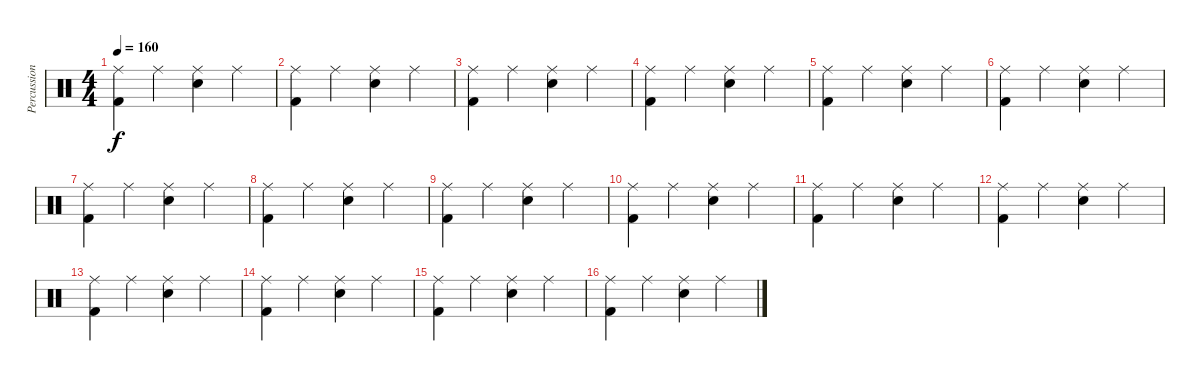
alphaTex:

\track ("Percussion" "Percussion") {instrument percussion}
\staff {score}
\articulation defaults
\ts (4 4)
\tempo 160
\clef neutral
\ks c
("Ride (middle)" "Kick (hit) 2").4{dy f} "Ride (middle)".4 ("Ride (middle)" "Electric Snare (hit)").4 "Ride (middle)".4 |
("Ride (middle)" "Kick (hit) 2").4 "Ride (middle)".4 ("Ride (middle)" "Electric Snare (hit)").4 "Ride (middle)".4 |
("Ride (middle)" "Kick (hit) 2").4 "Ride (middle)".4 ("Ride (middle)" "Electric Snare (hit)").4 "Ride (middle)".4 |
("Ride (middle)" "Kick (hit) 2").4 "Ride (middle)".4 ("Ride (middle)" "Electric Snare (hit)").4 "Ride (middle)".4 |
("Ride (middle)" "Kick (hit) 2").4 "Ride (middle)".4 ("Ride (middle)" "Electric Snare (hit)").4 "Ride (middle)".4 |
("Ride (middle)" "Kick (hit) 2").4 "Ride (middle)".4 ("Ride (middle)" "Electric Snare (hit)").4 "Ride (middle)".4 |
("Ride (middle)" "Kick (hit) 2").4 "Ride (middle)".4 ("Ride (middle)" "Electric Snare (hit)").4 "Ride (middle)".4 |
("Ride (middle)" "Kick (hit) 2").4 "Ride (middle)".4 ("Ride (middle)" "Electric Snare (hit)").4 "Ride (middle)".4 |
("Ride (middle)" "Kick (hit) 2").4 "Ride (middle)".4 ("Ride (middle)" "Electric Snare (hit)").4 "Ride (middle)".4 |
("Ride (middle)" "Kick (hit) 2").4 "Ride (middle)".4 ("Ride (middle)" "Electric Snare (hit)").4 "Ride (middle)".4 |
("Ride (middle)" "Kick (hit) 2").4 "Ride (middle)".4 ("Ride (middle)" "Electric Snare (hit)").4 "Ride (middle)".4 |
("Ride (middle)" "Kick (hit) 2").4 "Ride (middle)".4 ("Ride (middle)" "Electric Snare (hit)").4 "Ride (middle)".4 |
("Ride (middle)" "Kick (hit) 2").4 "Ride (middle)".4 ("Ride (middle)" "Electric Snare (hit)").4 "Ride (middle)".4 |
("Ride (middle)" "Kick (hit) 2").4 "Ride (middle)".4 ("Ride (middle)" "Electric Snare (hit)").4 "Ride (middle)".4 |
("Ride (middle)" "Kick (hit) 2").4 "Ride (middle)".4 ("Ride (middle)" "Electric Snare (hit)").4 "Ride (middle)".4 |
("Ride (middle)" "Kick (hit) 2").4 "Ride (middle)".4 ("Ride (middle)" "Electric Snare (hit)").4 "Ride (middle)".4
